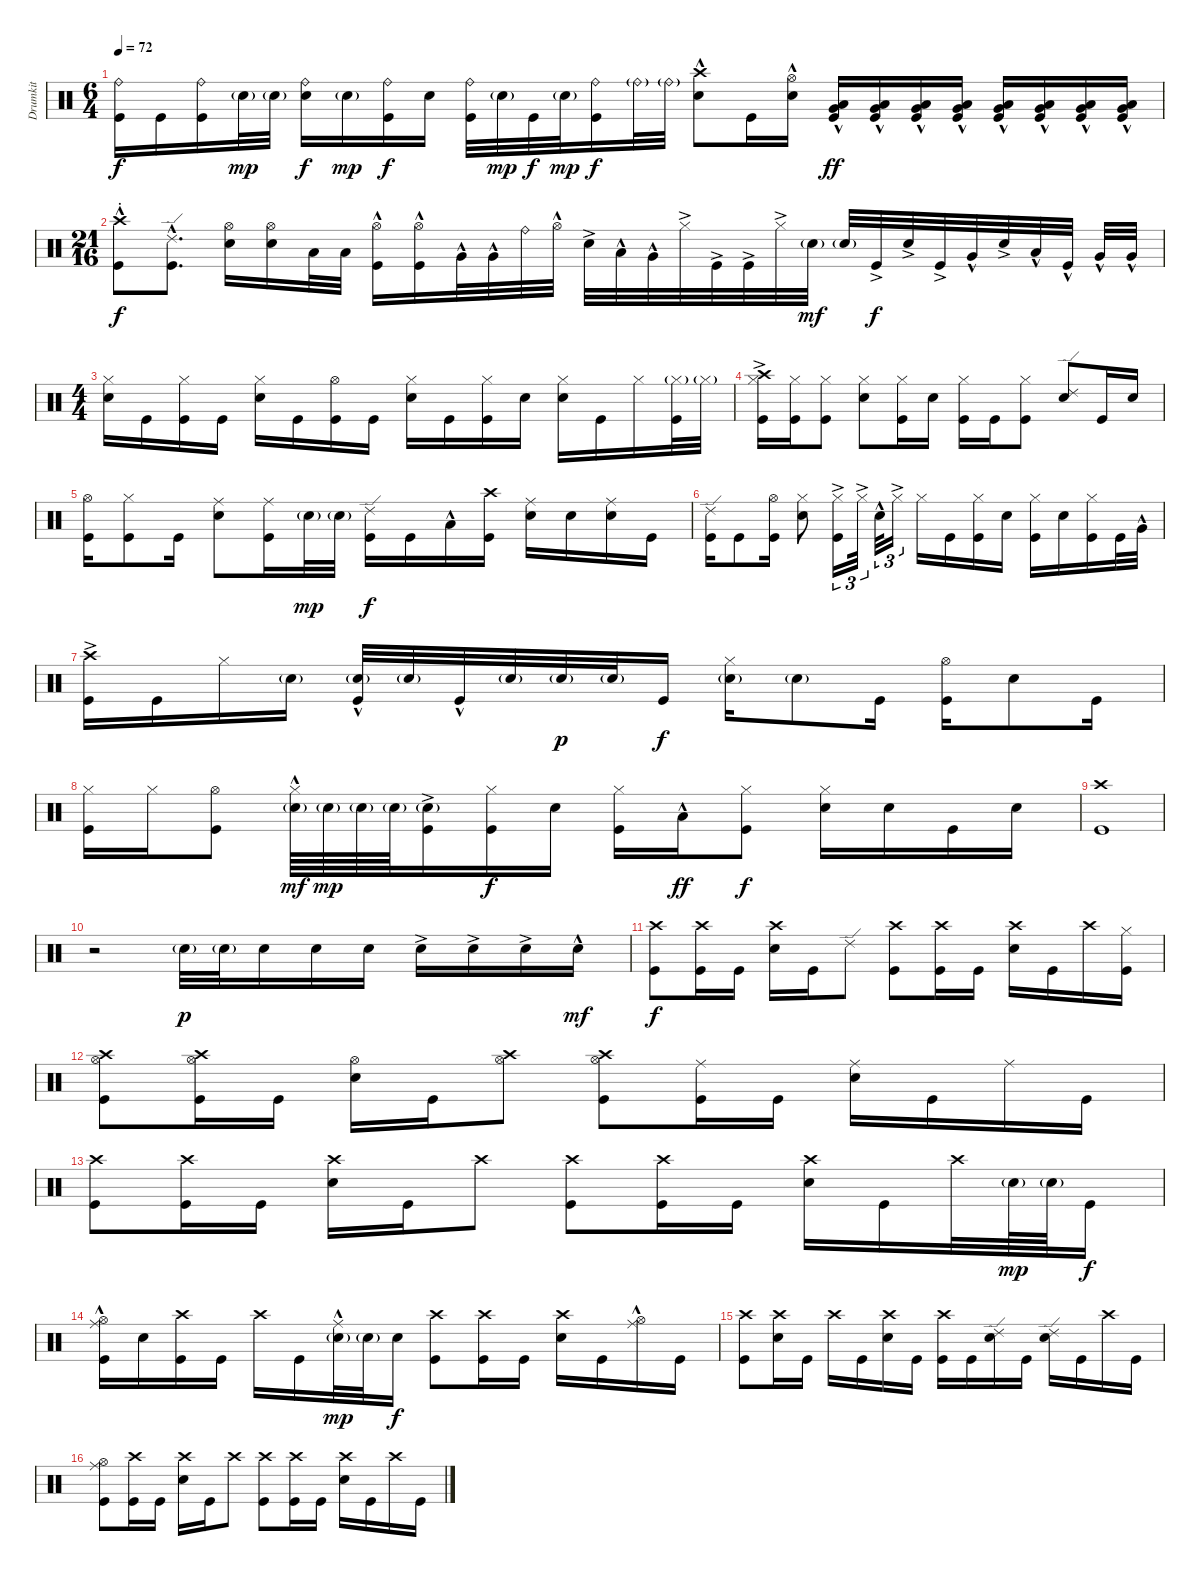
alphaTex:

\track ("Drumkit" "Drumkit") {instrument percussion}
\staff {score}
\articulation defaults
\ts (6 4)
\tempo 72
\clef neutral
\ks c
("Kick (hit)" "Ride (bell)").16{dy f} "Kick (hit)".16 ("Kick (hit)" "Ride (bell)").16 "Snare (hit) 2"{g}.32{dy mp} "Snare (hit) 2"{g}.32 ("Snare (hit) 2" "Ride (bell)").16{dy f} "Snare (hit) 2"{g}.16{dy mp} ("Kick (hit)" "Ride (bell)").16{dy f} "Snare (hit) 2".16 ("Kick (hit)" "Ride (bell)").32 "Snare (hit) 2"{g}.32{dy mp} "Kick (hit)".32{dy f} "Snare (hit) 2"{g}.32{dy mp} ("Kick (hit)" "Ride (bell)").16{dy f} "Ride (bell)"{g}.32 "Ride (bell)"{g}.32 ("Snare (hit) 2" "Crash high (hit)"{hac}).8 "Kick (hit)".16 ("Snare (hit) 2" "Hi-Hat (open)"{hac}).16 ("Low Tom (hit)"{hac} "Very Low Tom (hit)"{hac} "Kick (hit)"{hac}).16{dy ff} ("Low Tom (hit)"{hac} "Very Low Tom (hit)"{hac} "Kick (hit)"{hac}).16 ("Low Tom (hit)"{hac} "Very Low Tom (hit)"{hac} "Kick (hit)"{hac}).16 ("Low Tom (hit)"{hac} "Very Low Tom (hit)"{hac} "Kick (hit)"{hac}).16 ("Kick (hit)"{hac} "Low Tom (hit)"{hac} "Very Low Tom (hit)"{hac}).16 ("Kick (hit)"{hac} "Low Tom (hit)"{hac} "Very Low Tom (hit)"{hac}).16 ("Kick (hit)"{hac} "Low Tom (hit)"{hac} "Very Low Tom (hit)"{hac}).16 ("Kick (hit)"{hac} "Low Tom (hit)"{hac} "Very Low Tom (hit)"{hac}).16 |
\ts (21 16)
("Kick (hit)"{hac} "Crash high (hit)"{hac st}).8{dy f} ("Kick (hit)"{hac} "Ride (edge) 2"{hac}).8{d} ("Snare (hit) 2" "Hi-Hat (open)").16 ("Snare (hit) 2" "Hi-Hat (open)").16 "Low Tom (hit)".32 "Low Tom (hit)".32 ("Hi-Hat (open)"{hac} "Kick (hit)"{hac}).16 ("Hi-Hat (open)"{hac} "Kick (hit)"{hac}).16 "Very Low Tom (hit)"{hac}.32 "Very Low Tom (hit)"{hac}.32 "Ride (bell)".32 "Hi-Hat (open)"{hac}.32 "Snare (hit) 2"{ac}.32 "Low Tom (hit)"{hac}.32 "Very Low Tom (hit)"{hac}.32 "Hi-Hat (closed)"{ac}.32 "Kick (hit)"{ac}.32 "Kick (hit)"{ac}.32 "Hi-Hat (closed)"{ac}.32 "Snare (hit) 2"{g}.32{dy mf} "Snare (hit) 2"{g}.32 "Kick (hit)"{ac}.32{dy f} "Snare (hit) 2"{ac}.32 "Kick (hit)"{ac}.32 "Very Low Tom (hit)"{hac}.32 "Snare (hit) 2"{ac}.32 "Low Tom (hit)"{hac}.32 "Kick (hit)"{hac}.32 "Very Low Tom (hit)"{hac}.32 "Very Low Tom (hit)"{hac}.32 |
\ts (4 4)
("Snare (hit) 2" "Hi-Hat (closed)").16 "Kick (hit)".16 ("Kick (hit)" "Hi-Hat (closed)").16 "Kick (hit)".16 ("Snare (hit) 2" "Hi-Hat (closed)").16 "Kick (hit)".16 ("Kick (hit)" "Hi-Hat (open)").16 "Kick (hit)".16 ("Snare (hit) 2" "Hi-Hat (closed)").16 "Kick (hit)".16 ("Kick (hit)" "Hi-Hat (closed)").16 "Snare (hit) 2".16 ("Snare (hit) 2" "Hi-Hat (closed)").16 "Kick (hit)".16 "Hi-Hat (closed)".16 ("Hi-Hat (closed)"{g} "Kick (hit)").32 "Hi-Hat (closed)"{g}.32 |
("Kick (hit)" "Hi-Hat (closed)" "Crash high (hit)"{ac}).16 ("Kick (hit)" "Hi-Hat (closed)").16 ("Kick (hit)" "Hi-Hat (closed)").8 ("Snare (hit) 2" "Hi-Hat (closed)").8 ("Kick (hit)" "Hi-Hat (closed)").16 "Snare (hit) 2".16 ("Kick (hit)" "Hi-Hat (closed)").16 "Kick (hit)".16 ("Kick (hit)" "Hi-Hat (closed)").8 ("Snare (hit) 2" "Ride (edge) 2").8 "Kick (hit)".16 "Snare (hit) 2".16 |
("Kick (hit)" "Hi-Hat (open)").16 ("Kick (hit)" "Hi-Hat (closed)").8 "Kick (hit)".16 ("Snare (hit) 2" "Ride (middle)").8 ("Kick (hit)" "Ride (middle)").16 "Snare (hit) 2"{g}.32{dy mp} "Snare (hit) 2"{g}.32 ("Kick (hit)" "Ride (edge) 2").16{dy f} "Kick (hit)".16 "Low Tom (hit)"{hac}.16 ("Kick (hit)" "Crash high (hit)").16 ("Snare (hit) 2" "Ride (middle)").16 "Snare (hit) 2".16 ("Snare (hit) 2" "Ride (middle)").16 "Kick (hit)".16 |
("Kick (hit)" "Ride (edge) 2").16 "Kick (hit)".8 ("Kick (hit)" "Hi-Hat (open)").16 ("Snare (hit) 2" "Hi-Hat (closed)").8 ("Kick (hit)" "Hi-Hat (closed)"{ac}).16{tu (3 2)} "Hi-Hat (closed)"{ac}.32{tu (3 2)} "Snare (hit) 2"{hac}.32{tu (3 2)} "Hi-Hat (closed)"{ac}.16{tu (3 2)} "Hi-Hat (closed)".16 "Kick (hit)".16 ("Kick (hit)" "Hi-Hat (closed)").16 "Snare (hit) 2".16 ("Kick (hit)" "Hi-Hat (closed)").16 "Snare (hit) 2".16 ("Kick (hit)" "Hi-Hat (closed)").16 "Kick (hit)".32 "Very Low Tom (hit)"{hac}.32 |
("Kick (hit)" "Crash high (hit)"{ac}).16 "Kick (hit)".16 "Hi-Hat (closed)".16 "Snare (hit) 2"{g}.16 ("Snare (hit) 2"{g} "Kick (hit)"{hac}).32 "Snare (hit) 2"{g}.32 "Kick (hit)"{hac}.32 "Snare (hit) 2"{g}.32 "Snare (hit) 2"{g}.32{dy p} "Snare (hit) 2"{g}.32 "Kick (hit)".16{dy f} ("Snare (hit) 2"{g} "Hi-Hat (closed)").16 "Snare (hit) 2"{g}.8 "Kick (hit)".16 ("Kick (hit)" "Hi-Hat (open)").16 "Snare (hit) 2".8 "Kick (hit)".16 |
("Kick (hit)" "Hi-Hat (closed)").16 "Hi-Hat (closed)".16 ("Kick (hit)" "Hi-Hat (open)").8 ("Snare (hit) 2"{g} "Hi-Hat (closed)"{hac}).64{dy mf} "Snare (hit) 2"{g}.64{dy mp} "Snare (hit) 2"{g}.64 "Snare (hit) 2"{g}.64 ("Snare (hit) 2"{g} "Kick (hit)"{ac}).16 ("Kick (hit)" "Hi-Hat (closed)").16{dy f} "Snare (hit) 2".16 ("Kick (hit)" "Hi-Hat (closed)").16 "Low Tom (hit)"{hac}.16{dy ff} ("Kick (hit)" "Hi-Hat (closed)").8{dy f} ("Snare (hit) 2" "Hi-Hat (closed)").16 "Snare (hit) 2".16 "Kick (hit)".16 "Snare (hit) 2".16 |
("Kick (hit)" "Crash high (hit)").1 |
r.2 "Snare (hit) 2"{g}.32{dy p} "Snare (hit) 2"{g}.32 "Snare (hit) 2".16 "Snare (hit) 2".16 "Snare (hit) 2".16 "Snare (hit) 2"{ac}.16 "Snare (hit) 2"{ac}.16 "Snare (hit) 2"{ac}.16 "Snare (hit) 2"{hac}.16{dy mf} |
("Kick (hit)" "Crash high (hit)").8{dy f} ("Kick (hit)" "Crash high (hit)").16 "Kick (hit)".16 ("Snare (hit) 2" "Crash high (hit)").16 "Kick (hit)".16 "Ride (edge) 2".8 ("Kick (hit)" "Crash high (hit)").8 ("Kick (hit)" "Crash high (hit)").16 "Kick (hit)".16 ("Snare (hit) 2" "Crash high (hit)").16 "Kick (hit)".16 "Crash high (hit)".16 ("Kick (hit)" "Hi-Hat (closed)").16 |
("Kick (hit)" "Crash high (hit)" "Hi-Hat (open)").8 ("Kick (hit)" "Crash high (hit)" "Hi-Hat (open)").16 "Kick (hit)".16 ("Snare (hit) 2" "Hi-Hat (open)").16 "Kick (hit)".16 ("Crash high (hit)" "Hi-Hat (open)").8 ("Kick (hit)" "Crash high (hit)" "Hi-Hat (open)").8 ("Kick (hit)" "Ride (middle)").16 "Kick (hit)".16 ("Snare (hit) 2" "Ride (middle)").16 "Kick (hit)".16 "Ride (middle)".16 "Kick (hit)".16 |
("Kick (hit)" "Crash high (hit)").8 ("Kick (hit)" "Crash high (hit)").16 "Kick (hit)".16 ("Snare (hit) 2" "Crash high (hit)").16 "Kick (hit)".16 "Crash high (hit)".8 ("Kick (hit)" "Crash high (hit)").8 ("Kick (hit)" "Crash high (hit)").16 "Kick (hit)".16 ("Snare (hit) 2" "Crash high (hit)").16 "Kick (hit)".16 "Crash high (hit)".32 "Snare (hit) 2"{g}.64{dy mp} "Snare (hit) 2"{g}.64 "Kick (hit)".16{dy f} |
("Kick (hit)" "Ride (middle)"{hac} "Hi-Hat (open)"{hac}).16 "Snare (hit) 2".16 ("Kick (hit)" "Crash high (hit)").16 "Kick (hit)".16 "Crash high (hit)".16 "Kick (hit)".16 ("Ride (middle)"{hac} "Snare (hit) 2"{g}).32{dy mp} "Snare (hit) 2"{g}.32 "Snare (hit) 2".16{dy f} ("Kick (hit)" "Crash high (hit)").8 ("Kick (hit)" "Crash high (hit)").16 "Kick (hit)".16 ("Snare (hit) 2" "Crash high (hit)").16 "Kick (hit)".16 ("Hi-Hat (open)"{hac} "Ride (middle)"{hac}).16 "Kick (hit)".16 |
("Kick (hit)" "Crash high (hit)").8 ("Crash high (hit)" "Snare (hit) 2").16 "Kick (hit)".16 "Crash high (hit)".16 "Kick (hit)".16 ("Crash high (hit)" "Snare (hit) 2").16 "Kick (hit)".16 ("Kick (hit)" "Crash high (hit)").16 "Kick (hit)".16 ("Snare (hit) 2" "Ride (edge) 2").16 "Kick (hit)".16 ("Snare (hit) 2" "Ride (edge) 2").16 "Kick (hit)".16 "Crash high (hit)".16 "Kick (hit)".16 |
("Kick (hit)" "Ride (middle)" "Hi-Hat (open)").8 ("Kick (hit)" "Crash high (hit)").16 "Kick (hit)".16 ("Snare (hit) 2" "Crash high (hit)").16 "Kick (hit)".16 "Crash high (hit)".8 ("Kick (hit)" "Crash high (hit)").8 ("Kick (hit)" "Crash high (hit)").16 "Kick (hit)".16 ("Snare (hit) 2" "Crash high (hit)").16 "Kick (hit)".16 "Crash high (hit)".16 "Kick (hit)".16
